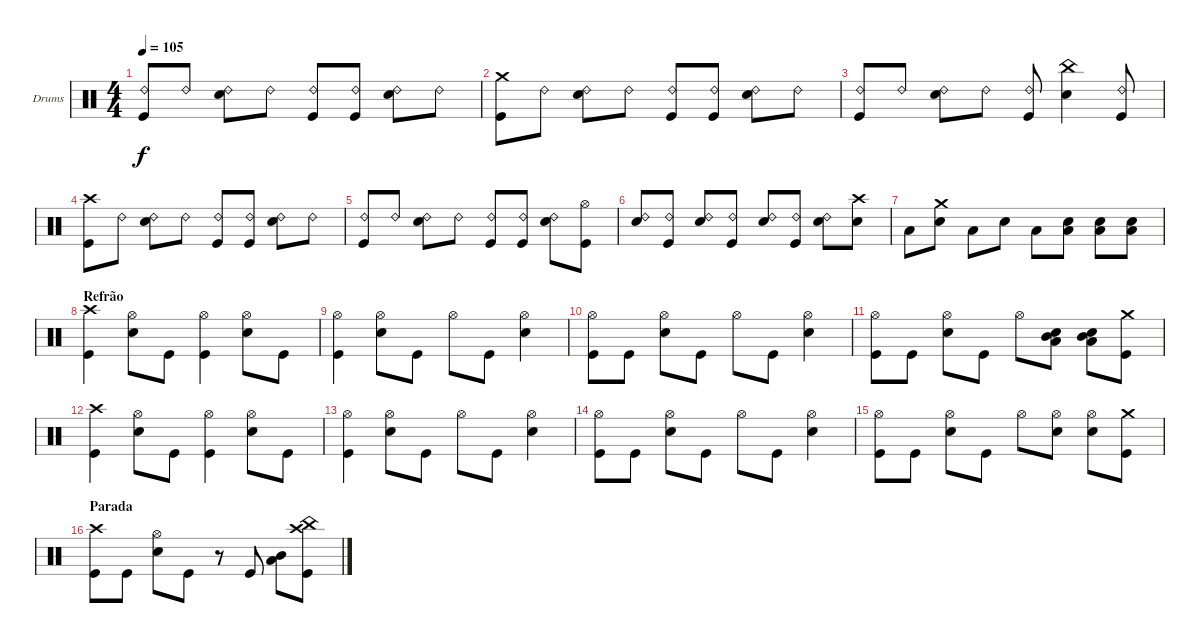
\bracketExtendMode groupsimilarinstruments
\firstSystemTrackNameOrientation horizontal
\otherSystemsTrackNameOrientation horizontal
\track ("Drumkit" "Drums") {instrument percussion}
\staff {score}
\articulation defaults
\ts (4 4)
\tempo 105
\clef neutral
\ks c
("Ride (bell) 2" "Kick (hit)").8{dy f} "Ride (bell) 2".8 ("Ride (bell) 2" "Snare (hit) 2").8 "Ride (bell) 2".8 ("Ride (bell) 2" "Kick (hit)").8 ("Ride (bell) 2" "Kick (hit)").8 ("Ride (bell) 2" "Snare (hit) 2").8 "Ride (bell) 2".8 |
("Crash medium (hit)" "Kick (hit)").8 "Ride (bell) 2".8 ("Ride (bell) 2" "Snare (hit) 2").8 "Ride (bell) 2".8 ("Ride (bell) 2" "Kick (hit)").8 ("Ride (bell) 2" "Kick (hit)").8 ("Ride (bell) 2" "Snare (hit) 2").8 "Ride (bell) 2".8 |
("Ride (bell) 2" "Kick (hit)").8 "Ride (bell) 2".8 ("Ride (bell) 2" "Snare (hit) 2").8 "Ride (bell) 2".8 ("Ride (bell) 2" "Kick (hit)").8 ("China (hit)" "Snare (hit) 2").4 ("Ride (bell) 2" "Kick (hit)").8 |
("Crash high (hit)" "Kick (hit)").8 "Ride (bell) 2".8 ("Ride (bell) 2" "Snare (hit) 2").8 "Ride (bell) 2".8 ("Ride (bell) 2" "Kick (hit)").8 ("Ride (bell) 2" "Kick (hit)").8 ("Ride (bell) 2" "Snare (hit) 2").8 "Ride (bell) 2".8 |
("Ride (bell) 2" "Kick (hit)").8 "Ride (bell) 2".8 ("Ride (bell) 2" "Snare (hit) 2").8 "Ride (bell) 2".8 ("Ride (bell) 2" "Kick (hit)").8 ("Ride (bell) 2" "Kick (hit)").8 ("Ride (bell) 2" "Snare (hit) 2").8 ("Hi-Hat (open)" "Kick (hit)").8 |
("Ride (bell) 2" "Snare (hit) 2").8 ("Ride (bell) 2" "Kick (hit)").8 ("Ride (bell) 2" "Snare (hit) 2").8 ("Ride (bell) 2" "Kick (hit)").8 ("Ride (bell) 2" "Snare (hit) 2").8 ("Ride (bell) 2" "Kick (hit)").8 ("Ride (bell) 2" "Snare (hit) 2").8 ("Crash high (hit)" "Snare (hit) 2").8 |
"Low Tom (hit)".8 ("Crash medium (hit)" "Snare (hit) 2").8 "Low Tom (hit)".8 "Snare (hit) 2".8 "Low Tom (hit)".8 ("Low Tom (hit)" "Snare (hit) 2").8 ("Low Tom (hit)" "Snare (hit) 2").8 ("Low Tom (hit)" "Snare (hit) 2").8 |
\section ("" "Refrão")
("Crash high (hit)" "Kick (hit)").4 ("Hi-Hat (open)" "Snare (hit) 2").8 "Kick (hit)".8 ("Hi-Hat (open)" "Kick (hit)").4 ("Hi-Hat (open)" "Snare (hit) 2").8 "Kick (hit)".8 |
("Hi-Hat (open)" "Kick (hit)").4 ("Hi-Hat (open)" "Snare (hit) 2").8 "Kick (hit)".8 "Hi-Hat (open)".8 "Kick (hit)".8 ("Hi-Hat (open)" "Snare (hit) 2").4 |
("Hi-Hat (open)" "Kick (hit)").8 "Kick (hit)".8 ("Hi-Hat (open)" "Snare (hit) 2").8 "Kick (hit)".8 "Hi-Hat (open)".8 "Kick (hit)".8 ("Hi-Hat (open)" "Snare (hit) 2").4 |
("Hi-Hat (open)" "Kick (hit)").8 "Kick (hit)".8 ("Hi-Hat (open)" "Snare (hit) 2").8 "Kick (hit)".8 "Hi-Hat (open)".8 ("Mid Tom (hit)" "Low Tom (hit)" "Snare (hit) 2").8 ("Mid Tom (hit)" "Low Tom (hit)" "Snare (hit) 2").8 ("Crash medium (hit)" "Kick (hit)").8 |
("Crash high (hit)" "Kick (hit)").4 ("Hi-Hat (open)" "Snare (hit) 2").8 "Kick (hit)".8 ("Hi-Hat (open)" "Kick (hit)").4 ("Hi-Hat (open)" "Snare (hit) 2").8 "Kick (hit)".8 |
("Hi-Hat (open)" "Kick (hit)").4 ("Hi-Hat (open)" "Snare (hit) 2").8 "Kick (hit)".8 "Hi-Hat (open)".8 "Kick (hit)".8 ("Hi-Hat (open)" "Snare (hit) 2").4 |
("Hi-Hat (open)" "Kick (hit)").8 "Kick (hit)".8 ("Hi-Hat (open)" "Snare (hit) 2").8 "Kick (hit)".8 "Hi-Hat (open)".8 "Kick (hit)".8 ("Hi-Hat (open)" "Snare (hit) 2").4 |
("Hi-Hat (open)" "Kick (hit)").8 "Kick (hit)".8 ("Hi-Hat (open)" "Snare (hit) 2").8 "Kick (hit)".8 "Hi-Hat (open)".8 ("Hi-Hat (open)" "Snare (hit) 2").8 ("Hi-Hat (open)" "Snare (hit) 2").8 ("Crash medium (hit)" "Kick (hit)").8 |
\section ("" "Parada")
("Crash high (hit)" "Kick (hit)").8 "Kick (hit)".8 ("Hi-Hat (open)" "Snare (hit) 2").8 "Kick (hit)".8 r.8 "Kick (hit)".8 ("Mid Tom (hit)" "Low Tom (hit)").8 ("Crash high (hit)" "China (hit)" "Kick (hit)").8
